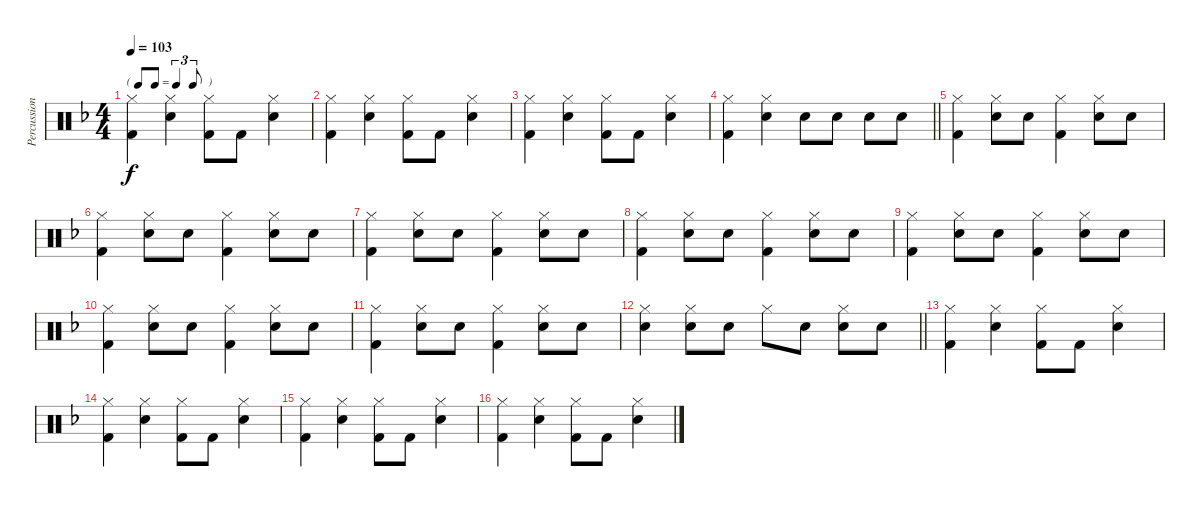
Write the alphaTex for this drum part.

\track ("Percussion" "Percussion") {instrument percussion}
\staff {score}
\articulation defaults
\ts (4 4)
\tf triplet8th
\tempo 103
\clef neutral
\ks f
("Hi-Hat (closed)" "Kick (hit) 2").4{dy f} ("Hi-Hat (closed)" "Snare (hit) 2").4 ("Hi-Hat (closed)" "Kick (hit) 2").8 "Kick (hit) 2".8 ("Hi-Hat (closed)" "Snare (hit) 2").4 |
("Hi-Hat (closed)" "Kick (hit) 2").4 ("Hi-Hat (closed)" "Snare (hit) 2").4 ("Hi-Hat (closed)" "Kick (hit) 2").8 "Kick (hit) 2".8 ("Hi-Hat (closed)" "Snare (hit) 2").4 |
("Hi-Hat (closed)" "Kick (hit) 2").4 ("Hi-Hat (closed)" "Snare (hit) 2").4 ("Hi-Hat (closed)" "Kick (hit) 2").8 "Kick (hit) 2".8 ("Hi-Hat (closed)" "Snare (hit) 2").4 |
\barLineRight lightlight
("Hi-Hat (closed)" "Kick (hit) 2").4 ("Hi-Hat (closed)" "Snare (hit) 2").4 "Snare (hit) 2".8 "Snare (hit) 2".8 "Snare (hit) 2".8 "Snare (hit) 2".8 |
("Hi-Hat (closed)" "Kick (hit) 2").4 ("Hi-Hat (closed)" "Snare (hit) 2").8 "Snare (hit) 2".8 ("Hi-Hat (closed)" "Kick (hit) 2").4 ("Hi-Hat (closed)" "Snare (hit) 2").8 "Snare (hit) 2".8 |
("Hi-Hat (closed)" "Kick (hit) 2").4 ("Hi-Hat (closed)" "Snare (hit) 2").8 "Snare (hit) 2".8 ("Hi-Hat (closed)" "Kick (hit) 2").4 ("Hi-Hat (closed)" "Snare (hit) 2").8 "Snare (hit) 2".8 |
("Hi-Hat (closed)" "Kick (hit) 2").4 ("Hi-Hat (closed)" "Snare (hit) 2").8 "Snare (hit) 2".8 ("Hi-Hat (closed)" "Kick (hit) 2").4 ("Hi-Hat (closed)" "Snare (hit) 2").8 "Snare (hit) 2".8 |
("Hi-Hat (closed)" "Kick (hit) 2").4 ("Hi-Hat (closed)" "Snare (hit) 2").8 "Snare (hit) 2".8 ("Hi-Hat (closed)" "Kick (hit) 2").4 ("Hi-Hat (closed)" "Snare (hit) 2").8 "Snare (hit) 2".8 |
("Hi-Hat (closed)" "Kick (hit) 2").4 ("Hi-Hat (closed)" "Snare (hit) 2").8 "Snare (hit) 2".8 ("Hi-Hat (closed)" "Kick (hit) 2").4 ("Hi-Hat (closed)" "Snare (hit) 2").8 "Snare (hit) 2".8 |
("Hi-Hat (closed)" "Kick (hit) 2").4 ("Hi-Hat (closed)" "Snare (hit) 2").8 "Snare (hit) 2".8 ("Hi-Hat (closed)" "Kick (hit) 2").4 ("Hi-Hat (closed)" "Snare (hit) 2").8 "Snare (hit) 2".8 |
("Hi-Hat (closed)" "Kick (hit) 2").4 ("Hi-Hat (closed)" "Snare (hit) 2").8 "Snare (hit) 2".8 ("Hi-Hat (closed)" "Kick (hit) 2").4 ("Hi-Hat (closed)" "Snare (hit) 2").8 "Snare (hit) 2".8 |
\barLineRight lightlight
("Hi-Hat (closed)" "Snare (hit) 2").4 ("Hi-Hat (closed)" "Snare (hit) 2").8 "Snare (hit) 2".8 "Hi-Hat (closed)".8 "Snare (hit) 2".8 ("Hi-Hat (closed)" "Snare (hit) 2").8 "Snare (hit) 2".8 |
("Hi-Hat (closed)" "Kick (hit) 2").4 ("Hi-Hat (closed)" "Snare (hit) 2").4 ("Hi-Hat (closed)" "Kick (hit) 2").8 "Kick (hit) 2".8 ("Hi-Hat (closed)" "Snare (hit) 2").4 |
("Hi-Hat (closed)" "Kick (hit) 2").4 ("Hi-Hat (closed)" "Snare (hit) 2").4 ("Hi-Hat (closed)" "Kick (hit) 2").8 "Kick (hit) 2".8 ("Hi-Hat (closed)" "Snare (hit) 2").4 |
("Hi-Hat (closed)" "Kick (hit) 2").4 ("Hi-Hat (closed)" "Snare (hit) 2").4 ("Hi-Hat (closed)" "Kick (hit) 2").8 "Kick (hit) 2".8 ("Hi-Hat (closed)" "Snare (hit) 2").4 |
("Hi-Hat (closed)" "Kick (hit) 2").4 ("Hi-Hat (closed)" "Snare (hit) 2").4 ("Hi-Hat (closed)" "Kick (hit) 2").8 "Kick (hit) 2".8 ("Hi-Hat (closed)" "Snare (hit) 2").4
